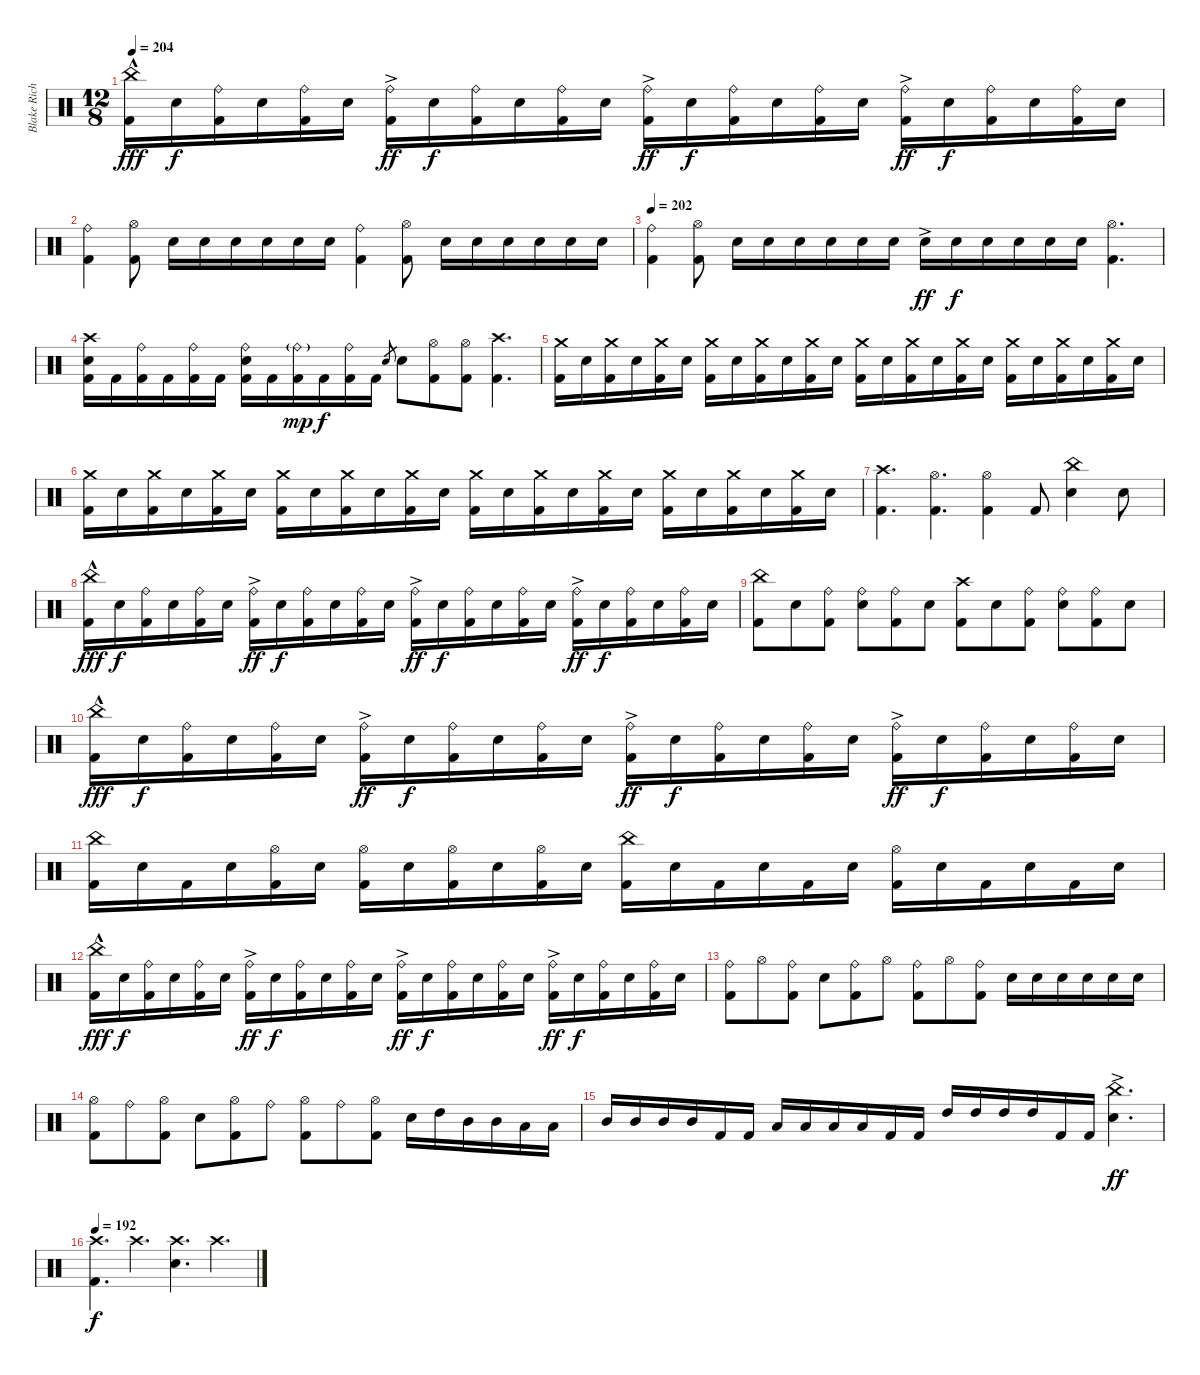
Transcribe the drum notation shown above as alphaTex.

\track ("Blake Richardson" "Blake Rich") {instrument percussion}
\staff {score}
\articulation defaults
\ts (12 8)
\tempo 204
\clef neutral
\ks c
("China (hit)"{hac} "Kick (hit) 2").16{dy fff} "Electric Snare (hit)".16{dy f} ("Ride (bell)" "Kick (hit) 2").16 "Electric Snare (hit)".16 ("Ride (bell)" "Kick (hit) 2").16 "Electric Snare (hit)".16 ("Ride (bell)"{ac} "Kick (hit) 2").16{dy ff} "Electric Snare (hit)".16{dy f} ("Ride (bell)" "Kick (hit) 2").16 "Electric Snare (hit)".16 ("Ride (bell)" "Kick (hit) 2").16 "Electric Snare (hit)".16 ("Ride (bell)"{ac} "Kick (hit) 2").16{dy ff} "Electric Snare (hit)".16{dy f} ("Ride (bell)" "Kick (hit) 2").16 "Electric Snare (hit)".16 ("Ride (bell)" "Kick (hit) 2").16 "Electric Snare (hit)".16 ("Ride (bell)"{ac} "Kick (hit) 2").16{dy ff} "Electric Snare (hit)".16{dy f} ("Ride (bell)" "Kick (hit) 2").16 "Electric Snare (hit)".16 ("Ride (bell)" "Kick (hit) 2").16 "Electric Snare (hit)".16 |
("Ride (bell)" "Kick (hit) 2").4 ("Hi-Hat (open)" "Kick (hit) 2").8 "Electric Snare (hit)".16 "Electric Snare (hit)".16 "Electric Snare (hit)".16 "Electric Snare (hit)".16 "Electric Snare (hit)".16 "Electric Snare (hit)".16 ("Ride (bell)" "Kick (hit) 2").4 ("Hi-Hat (open)" "Kick (hit) 2").8 "Electric Snare (hit)".16 "Electric Snare (hit)".16 "Electric Snare (hit)".16 "Electric Snare (hit)".16 "Electric Snare (hit)".16 "Electric Snare (hit)".16 |
\tempo 202
("Ride (bell)" "Kick (hit) 2").4 ("Hi-Hat (open)" "Kick (hit) 2").8 "Electric Snare (hit)".16 "Electric Snare (hit)".16 "Electric Snare (hit)".16 "Electric Snare (hit)".16 "Electric Snare (hit)".16 "Electric Snare (hit)".16 "Electric Snare (hit)"{ac}.16{dy ff} "Electric Snare (hit)".16{dy f} "Electric Snare (hit)".16 "Electric Snare (hit)".16 "Electric Snare (hit)".16 "Electric Snare (hit)".16 ("Hi-Hat (open)" "Kick (hit) 2").4{d} |
("Crash high (hit)" "Electric Snare (hit)" "Kick (hit) 2").16 "Kick (hit) 2".16 ("Ride (bell)" "Kick (hit) 2").16 "Kick (hit) 2".16 ("Ride (bell)" "Kick (hit) 2").16 "Kick (hit) 2".16 ("Ride (bell)" "Electric Snare (hit)" "Kick (hit) 2").16 "Kick (hit) 2".16 ("Ride (bell)"{g} "Kick (hit) 2").16{dy mp} "Kick (hit) 2".16{dy f} ("Ride (bell)" "Kick (hit) 2").16 "Kick (hit) 2".16 "Electric Snare (hit)".8{gr} "Electric Snare (hit)".8 ("Hi-Hat (open)" "Kick (hit) 2").8 ("Hi-Hat (open)" "Kick (hit) 2").8 ("Crash high (hit)" "Kick (hit) 2").4{d} |
("Crash medium (hit)" "Kick (hit) 2").16 "Electric Snare (hit)".16 ("Crash medium (hit)" "Kick (hit) 2").16 "Electric Snare (hit)".16 ("Crash medium (hit)" "Kick (hit) 2").16 "Electric Snare (hit)".16 ("Crash medium (hit)" "Kick (hit) 2").16 "Electric Snare (hit)".16 ("Crash medium (hit)" "Kick (hit) 2").16 "Electric Snare (hit)".16 ("Crash medium (hit)" "Kick (hit) 2").16 "Electric Snare (hit)".16 ("Crash medium (hit)" "Kick (hit) 2").16 "Electric Snare (hit)".16 ("Crash medium (hit)" "Kick (hit) 2").16 "Electric Snare (hit)".16 ("Crash medium (hit)" "Kick (hit) 2").16 "Electric Snare (hit)".16 ("Crash medium (hit)" "Kick (hit) 2").16 "Electric Snare (hit)".16 ("Crash medium (hit)" "Kick (hit) 2").16 "Electric Snare (hit)".16 ("Crash medium (hit)" "Kick (hit) 2").16 "Electric Snare (hit)".16 |
("Crash medium (hit)" "Kick (hit) 2").16 "Electric Snare (hit)".16 ("Crash medium (hit)" "Kick (hit) 2").16 "Electric Snare (hit)".16 ("Crash medium (hit)" "Kick (hit) 2").16 "Electric Snare (hit)".16 ("Crash medium (hit)" "Kick (hit) 2").16 "Electric Snare (hit)".16 ("Crash medium (hit)" "Kick (hit) 2").16 "Electric Snare (hit)".16 ("Crash medium (hit)" "Kick (hit) 2").16 "Electric Snare (hit)".16 ("Crash medium (hit)" "Kick (hit) 2").16 "Electric Snare (hit)".16 ("Crash medium (hit)" "Kick (hit) 2").16 "Electric Snare (hit)".16 ("Crash medium (hit)" "Kick (hit) 2").16 "Electric Snare (hit)".16 ("Crash medium (hit)" "Kick (hit) 2").16 "Electric Snare (hit)".16 ("Crash medium (hit)" "Kick (hit) 2").16 "Electric Snare (hit)".16 ("Crash medium (hit)" "Kick (hit) 2").16 "Electric Snare (hit)".16 |
("Crash high (hit)" "Kick (hit) 2").4{d} ("Hi-Hat (open)" "Kick (hit) 2").4{d} ("Hi-Hat (open)" "Kick (hit) 2").4 "Kick (hit) 2".8 ("China (hit)" "Electric Snare (hit)").4 "Electric Snare (hit)".8 |
("China (hit)"{hac} "Kick (hit) 2").16{dy fff} "Electric Snare (hit)".16{dy f} ("Ride (bell)" "Kick (hit) 2").16 "Electric Snare (hit)".16 ("Ride (bell)" "Kick (hit) 2").16 "Electric Snare (hit)".16 ("Ride (bell)"{ac} "Kick (hit) 2").16{dy ff} "Electric Snare (hit)".16{dy f} ("Ride (bell)" "Kick (hit) 2").16 "Electric Snare (hit)".16 ("Ride (bell)" "Kick (hit) 2").16 "Electric Snare (hit)".16 ("Ride (bell)"{ac} "Kick (hit) 2").16{dy ff} "Electric Snare (hit)".16{dy f} ("Ride (bell)" "Kick (hit) 2").16 "Electric Snare (hit)".16 ("Ride (bell)" "Kick (hit) 2").16 "Electric Snare (hit)".16 ("Ride (bell)"{ac} "Kick (hit) 2").16{dy ff} "Electric Snare (hit)".16{dy f} ("Ride (bell)" "Kick (hit) 2").16 "Electric Snare (hit)".16 ("Ride (bell)" "Kick (hit) 2").16 "Electric Snare (hit)".16 |
("China (hit)" "Kick (hit) 2").8 "Electric Snare (hit)".8 ("Ride (bell)" "Kick (hit) 2").8 ("Ride (bell)" "Electric Snare (hit)").8 ("Ride (bell)" "Kick (hit) 2").8 "Electric Snare (hit)".8 ("Crash high (hit)" "Kick (hit) 2").8 "Electric Snare (hit)".8 ("Ride (bell)" "Kick (hit) 2").8 ("Ride (bell)" "Electric Snare (hit)").8 ("Ride (bell)" "Kick (hit) 2").8 "Electric Snare (hit)".8 |
("China (hit)"{hac} "Kick (hit) 2").16{dy fff} "Electric Snare (hit)".16{dy f} ("Ride (bell)" "Kick (hit) 2").16 "Electric Snare (hit)".16 ("Ride (bell)" "Kick (hit) 2").16 "Electric Snare (hit)".16 ("Ride (bell)"{ac} "Kick (hit) 2").16{dy ff} "Electric Snare (hit)".16{dy f} ("Ride (bell)" "Kick (hit) 2").16 "Electric Snare (hit)".16 ("Ride (bell)" "Kick (hit) 2").16 "Electric Snare (hit)".16 ("Ride (bell)"{ac} "Kick (hit) 2").16{dy ff} "Electric Snare (hit)".16{dy f} ("Ride (bell)" "Kick (hit) 2").16 "Electric Snare (hit)".16 ("Ride (bell)" "Kick (hit) 2").16 "Electric Snare (hit)".16 ("Ride (bell)"{ac} "Kick (hit) 2").16{dy ff} "Electric Snare (hit)".16{dy f} ("Ride (bell)" "Kick (hit) 2").16 "Electric Snare (hit)".16 ("Ride (bell)" "Kick (hit) 2").16 "Electric Snare (hit)".16 |
("China (hit)" "Kick (hit) 2").16 "Electric Snare (hit)".16 "Kick (hit) 2".16 "Electric Snare (hit)".16 ("Hi-Hat (open)" "Kick (hit) 2").16 "Electric Snare (hit)".16 ("Hi-Hat (open)" "Kick (hit) 2").16 "Electric Snare (hit)".16 ("Hi-Hat (open)" "Kick (hit) 2").16 "Electric Snare (hit)".16 ("Hi-Hat (open)" "Kick (hit) 2").16 "Electric Snare (hit)".16 ("China (hit)" "Kick (hit) 2").16 "Electric Snare (hit)".16 "Kick (hit) 2".16 "Electric Snare (hit)".16 "Kick (hit) 2".16 "Electric Snare (hit)".16 ("Hi-Hat (open)" "Kick (hit) 2").16 "Electric Snare (hit)".16 "Kick (hit) 2".16 "Electric Snare (hit)".16 "Kick (hit) 2".16 "Electric Snare (hit)".16 |
("China (hit)"{hac} "Kick (hit) 2").16{dy fff} "Electric Snare (hit)".16{dy f} ("Ride (bell)" "Kick (hit) 2").16 "Electric Snare (hit)".16 ("Ride (bell)" "Kick (hit) 2").16 "Electric Snare (hit)".16 ("Ride (bell)"{ac} "Kick (hit) 2").16{dy ff} "Electric Snare (hit)".16{dy f} ("Ride (bell)" "Kick (hit) 2").16 "Electric Snare (hit)".16 ("Ride (bell)" "Kick (hit) 2").16 "Electric Snare (hit)".16 ("Ride (bell)"{ac} "Kick (hit) 2").16{dy ff} "Electric Snare (hit)".16{dy f} ("Ride (bell)" "Kick (hit) 2").16 "Electric Snare (hit)".16 ("Ride (bell)" "Kick (hit) 2").16 "Electric Snare (hit)".16 ("Ride (bell)"{ac} "Kick (hit) 2").16{dy ff} "Electric Snare (hit)".16{dy f} ("Ride (bell)" "Kick (hit) 2").16 "Electric Snare (hit)".16 ("Ride (bell)" "Kick (hit) 2").16 "Electric Snare (hit)".16 |
("Ride (bell)" "Kick (hit) 2").8 "Hi-Hat (open)".8 ("Ride (bell)" "Kick (hit) 2").8 "Electric Snare (hit)".8 ("Ride (bell)" "Kick (hit) 2").8 "Hi-Hat (open)".8 ("Ride (bell)" "Kick (hit) 2").8 "Hi-Hat (open)".8 ("Ride (bell)" "Kick (hit) 2").8 "Electric Snare (hit)".16 "Electric Snare (hit)".16 "Electric Snare (hit)".16 "Electric Snare (hit)".16 "Electric Snare (hit)".16 "Electric Snare (hit)".16 |
("Hi-Hat (open)" "Kick (hit) 2").8 "Ride (bell)".8 ("Hi-Hat (open)" "Kick (hit) 2").8 "Electric Snare (hit)".8 ("Hi-Hat (open)" "Kick (hit) 2").8 "Ride (bell)".8 ("Hi-Hat (open)" "Kick (hit) 2").8 "Ride (bell)".8 ("Hi-Hat (open)" "Kick (hit) 2").8 "Electric Snare (hit)".16 "High Tom (hit)".16 "Mid Tom (hit)".16 "Mid Tom (hit)".16 "Low Tom (hit)".16 "Low Tom (hit)".16 |
"Mid Tom (hit)".16 "Mid Tom (hit)".16 "Mid Tom (hit)".16 "Mid Tom (hit)".16 "Kick (hit) 2".16 "Kick (hit) 2".16 "Low Tom (hit)".16 "Low Tom (hit)".16 "Low Tom (hit)".16 "Low Tom (hit)".16 "Kick (hit) 2".16 "Kick (hit) 2".16 "High Tom (hit)".16 "High Tom (hit)".16 "High Tom (hit)".16 "High Tom (hit)".16 "Kick (hit) 2".16 "Kick (hit) 2".16 ("China (hit)"{ac} "Electric Snare (hit)").4{d dy ff} |
\tempo 192
("Crash high (hit)" "Kick (hit) 2").4{d dy f} "Crash high (hit)".4{d} ("Crash high (hit)" "Electric Snare (hit)").4{d} "Crash high (hit)".4{d}
